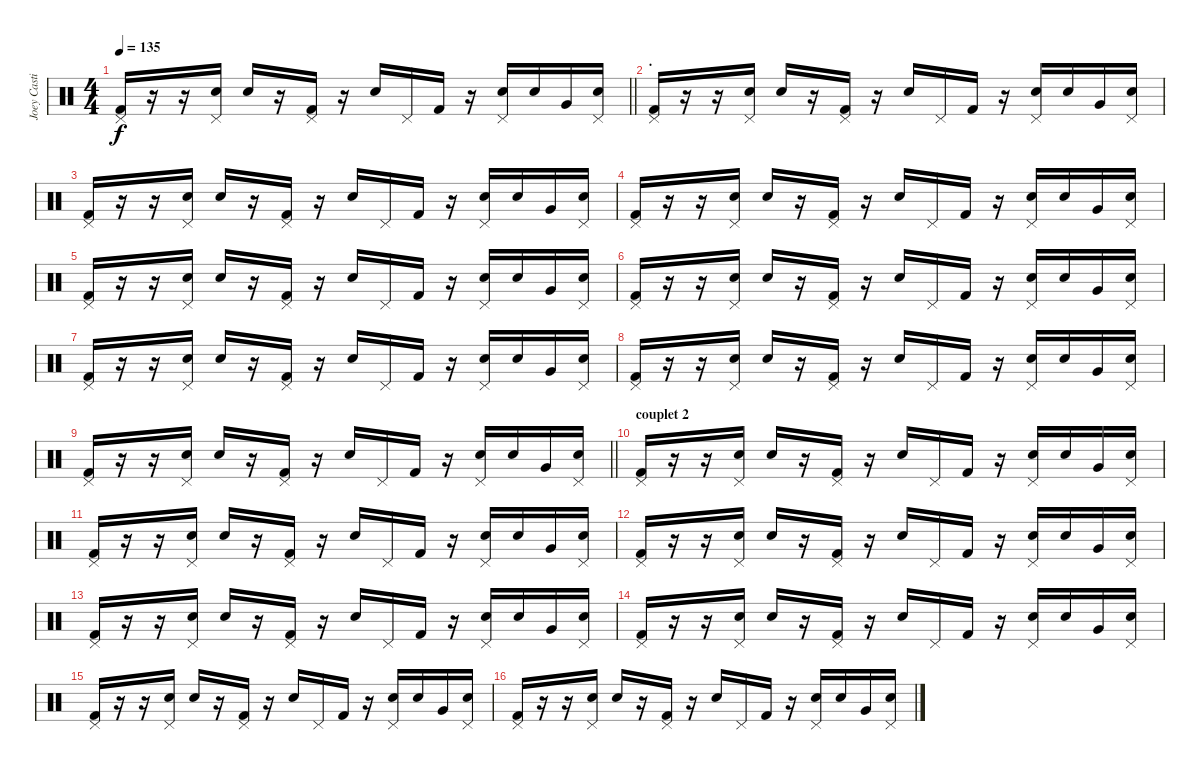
\track ("Joey Castillo" "Joey Casti") {instrument percussion}
\staff {score}
\articulation defaults
\ts (4 4)
\tempo 135
\clef neutral
\barLineRight lightlight
\ks c
("Kick (hit) 2" "Pedal Hi-Hat (hit)").16{dy f} r.16 r.16 ("Electric Snare (hit)" "Pedal Hi-Hat (hit)").16 "Electric Snare (hit)".16 r.16 ("Kick (hit) 2" "Pedal Hi-Hat (hit)").16 r.16 "Electric Snare (hit)".16 "Pedal Hi-Hat (hit)".16 "Kick (hit) 2".16 r.16 ("Electric Snare (hit)" "Pedal Hi-Hat (hit)").16 "Electric Snare (hit)".16 "Very Low Tom (hit)".16 ("Electric Snare (hit)" "Pedal Hi-Hat (hit)").16 |
\section ("" ".")
("Kick (hit) 2" "Pedal Hi-Hat (hit)").16 r.16 r.16 ("Electric Snare (hit)" "Pedal Hi-Hat (hit)").16 "Electric Snare (hit)".16 r.16 ("Kick (hit) 2" "Pedal Hi-Hat (hit)").16 r.16 "Electric Snare (hit)".16 "Pedal Hi-Hat (hit)".16 "Kick (hit) 2".16 r.16 ("Electric Snare (hit)" "Pedal Hi-Hat (hit)").16 "Electric Snare (hit)".16 "Very Low Tom (hit)".16 ("Electric Snare (hit)" "Pedal Hi-Hat (hit)").16 |
("Kick (hit) 2" "Pedal Hi-Hat (hit)").16 r.16 r.16 ("Electric Snare (hit)" "Pedal Hi-Hat (hit)").16 "Electric Snare (hit)".16 r.16 ("Kick (hit) 2" "Pedal Hi-Hat (hit)").16 r.16 "Electric Snare (hit)".16 "Pedal Hi-Hat (hit)".16 "Kick (hit) 2".16 r.16 ("Electric Snare (hit)" "Pedal Hi-Hat (hit)").16 "Electric Snare (hit)".16 "Very Low Tom (hit)".16 ("Electric Snare (hit)" "Pedal Hi-Hat (hit)").16 |
("Kick (hit) 2" "Pedal Hi-Hat (hit)").16 r.16 r.16 ("Electric Snare (hit)" "Pedal Hi-Hat (hit)").16 "Electric Snare (hit)".16 r.16 ("Kick (hit) 2" "Pedal Hi-Hat (hit)").16 r.16 "Electric Snare (hit)".16 "Pedal Hi-Hat (hit)".16 "Kick (hit) 2".16 r.16 ("Electric Snare (hit)" "Pedal Hi-Hat (hit)").16 "Electric Snare (hit)".16 "Very Low Tom (hit)".16 ("Electric Snare (hit)" "Pedal Hi-Hat (hit)").16 |
("Kick (hit) 2" "Pedal Hi-Hat (hit)").16 r.16 r.16 ("Electric Snare (hit)" "Pedal Hi-Hat (hit)").16 "Electric Snare (hit)".16 r.16 ("Kick (hit) 2" "Pedal Hi-Hat (hit)").16 r.16 "Electric Snare (hit)".16 "Pedal Hi-Hat (hit)".16 "Kick (hit) 2".16 r.16 ("Electric Snare (hit)" "Pedal Hi-Hat (hit)").16 "Electric Snare (hit)".16 "Very Low Tom (hit)".16 ("Electric Snare (hit)" "Pedal Hi-Hat (hit)").16 |
("Kick (hit) 2" "Pedal Hi-Hat (hit)").16 r.16 r.16 ("Electric Snare (hit)" "Pedal Hi-Hat (hit)").16 "Electric Snare (hit)".16 r.16 ("Kick (hit) 2" "Pedal Hi-Hat (hit)").16 r.16 "Electric Snare (hit)".16 "Pedal Hi-Hat (hit)".16 "Kick (hit) 2".16 r.16 ("Electric Snare (hit)" "Pedal Hi-Hat (hit)").16 "Electric Snare (hit)".16 "Very Low Tom (hit)".16 ("Electric Snare (hit)" "Pedal Hi-Hat (hit)").16 |
("Kick (hit) 2" "Pedal Hi-Hat (hit)").16 r.16 r.16 ("Electric Snare (hit)" "Pedal Hi-Hat (hit)").16 "Electric Snare (hit)".16 r.16 ("Kick (hit) 2" "Pedal Hi-Hat (hit)").16 r.16 "Electric Snare (hit)".16 "Pedal Hi-Hat (hit)".16 "Kick (hit) 2".16 r.16 ("Electric Snare (hit)" "Pedal Hi-Hat (hit)").16 "Electric Snare (hit)".16 "Very Low Tom (hit)".16 ("Electric Snare (hit)" "Pedal Hi-Hat (hit)").16 |
("Kick (hit) 2" "Pedal Hi-Hat (hit)").16 r.16 r.16 ("Electric Snare (hit)" "Pedal Hi-Hat (hit)").16 "Electric Snare (hit)".16 r.16 ("Kick (hit) 2" "Pedal Hi-Hat (hit)").16 r.16 "Electric Snare (hit)".16 "Pedal Hi-Hat (hit)".16 "Kick (hit) 2".16 r.16 ("Electric Snare (hit)" "Pedal Hi-Hat (hit)").16 "Electric Snare (hit)".16 "Very Low Tom (hit)".16 ("Electric Snare (hit)" "Pedal Hi-Hat (hit)").16 |
\barLineRight lightlight
("Kick (hit) 2" "Pedal Hi-Hat (hit)").16 r.16 r.16 ("Electric Snare (hit)" "Pedal Hi-Hat (hit)").16 "Electric Snare (hit)".16 r.16 ("Kick (hit) 2" "Pedal Hi-Hat (hit)").16 r.16 "Electric Snare (hit)".16 "Pedal Hi-Hat (hit)".16 "Kick (hit) 2".16 r.16 ("Electric Snare (hit)" "Pedal Hi-Hat (hit)").16 "Electric Snare (hit)".16 "Very Low Tom (hit)".16 ("Electric Snare (hit)" "Pedal Hi-Hat (hit)").16 |
\section ("" "couplet 2")
("Kick (hit) 2" "Pedal Hi-Hat (hit)").16 r.16 r.16 ("Electric Snare (hit)" "Pedal Hi-Hat (hit)").16 "Electric Snare (hit)".16 r.16 ("Kick (hit) 2" "Pedal Hi-Hat (hit)").16 r.16 "Electric Snare (hit)".16 "Pedal Hi-Hat (hit)".16 "Kick (hit) 2".16 r.16 ("Electric Snare (hit)" "Pedal Hi-Hat (hit)").16 "Electric Snare (hit)".16 "Very Low Tom (hit)".16 ("Electric Snare (hit)" "Pedal Hi-Hat (hit)").16 |
("Kick (hit) 2" "Pedal Hi-Hat (hit)").16 r.16 r.16 ("Electric Snare (hit)" "Pedal Hi-Hat (hit)").16 "Electric Snare (hit)".16 r.16 ("Kick (hit) 2" "Pedal Hi-Hat (hit)").16 r.16 "Electric Snare (hit)".16 "Pedal Hi-Hat (hit)".16 "Kick (hit) 2".16 r.16 ("Electric Snare (hit)" "Pedal Hi-Hat (hit)").16 "Electric Snare (hit)".16 "Very Low Tom (hit)".16 ("Electric Snare (hit)" "Pedal Hi-Hat (hit)").16 |
("Kick (hit) 2" "Pedal Hi-Hat (hit)").16 r.16 r.16 ("Electric Snare (hit)" "Pedal Hi-Hat (hit)").16 "Electric Snare (hit)".16 r.16 ("Kick (hit) 2" "Pedal Hi-Hat (hit)").16 r.16 "Electric Snare (hit)".16 "Pedal Hi-Hat (hit)".16 "Kick (hit) 2".16 r.16 ("Electric Snare (hit)" "Pedal Hi-Hat (hit)").16 "Electric Snare (hit)".16 "Very Low Tom (hit)".16 ("Electric Snare (hit)" "Pedal Hi-Hat (hit)").16 |
("Kick (hit) 2" "Pedal Hi-Hat (hit)").16 r.16 r.16 ("Electric Snare (hit)" "Pedal Hi-Hat (hit)").16 "Electric Snare (hit)".16 r.16 ("Kick (hit) 2" "Pedal Hi-Hat (hit)").16 r.16 "Electric Snare (hit)".16 "Pedal Hi-Hat (hit)".16 "Kick (hit) 2".16 r.16 ("Electric Snare (hit)" "Pedal Hi-Hat (hit)").16 "Electric Snare (hit)".16 "Very Low Tom (hit)".16 ("Electric Snare (hit)" "Pedal Hi-Hat (hit)").16 |
("Kick (hit) 2" "Pedal Hi-Hat (hit)").16 r.16 r.16 ("Electric Snare (hit)" "Pedal Hi-Hat (hit)").16 "Electric Snare (hit)".16 r.16 ("Kick (hit) 2" "Pedal Hi-Hat (hit)").16 r.16 "Electric Snare (hit)".16 "Pedal Hi-Hat (hit)".16 "Kick (hit) 2".16 r.16 ("Electric Snare (hit)" "Pedal Hi-Hat (hit)").16 "Electric Snare (hit)".16 "Very Low Tom (hit)".16 ("Electric Snare (hit)" "Pedal Hi-Hat (hit)").16 |
("Kick (hit) 2" "Pedal Hi-Hat (hit)").16 r.16 r.16 ("Electric Snare (hit)" "Pedal Hi-Hat (hit)").16 "Electric Snare (hit)".16 r.16 ("Kick (hit) 2" "Pedal Hi-Hat (hit)").16 r.16 "Electric Snare (hit)".16 "Pedal Hi-Hat (hit)".16 "Kick (hit) 2".16 r.16 ("Electric Snare (hit)" "Pedal Hi-Hat (hit)").16 "Electric Snare (hit)".16 "Very Low Tom (hit)".16 ("Electric Snare (hit)" "Pedal Hi-Hat (hit)").16 |
("Kick (hit) 2" "Pedal Hi-Hat (hit)").16 r.16 r.16 ("Electric Snare (hit)" "Pedal Hi-Hat (hit)").16 "Electric Snare (hit)".16 r.16 ("Kick (hit) 2" "Pedal Hi-Hat (hit)").16 r.16 "Electric Snare (hit)".16 "Pedal Hi-Hat (hit)".16 "Kick (hit) 2".16 r.16 ("Electric Snare (hit)" "Pedal Hi-Hat (hit)").16 "Electric Snare (hit)".16 "Very Low Tom (hit)".16 ("Electric Snare (hit)" "Pedal Hi-Hat (hit)").16
